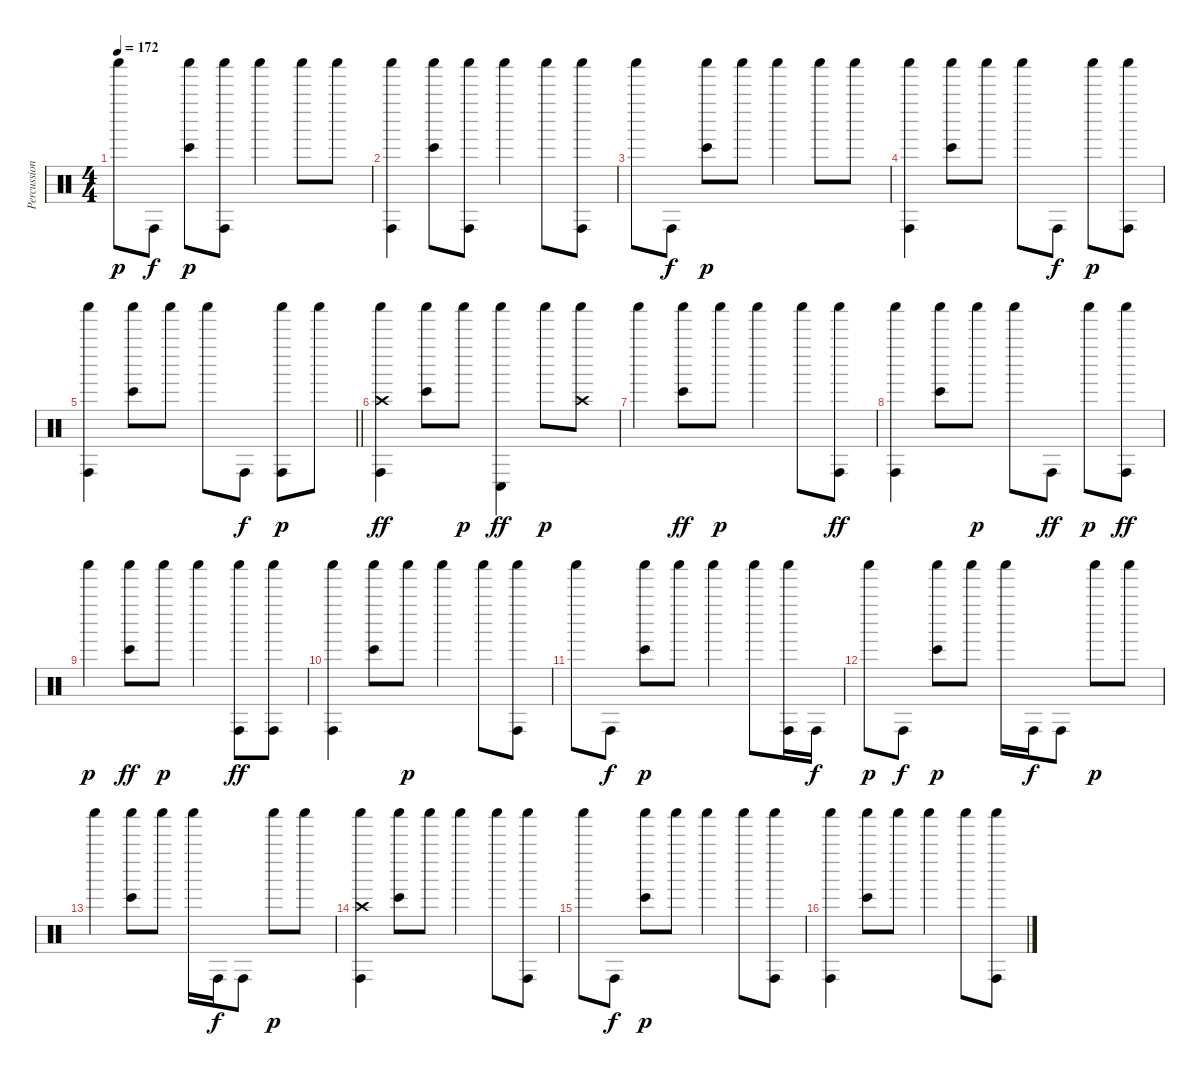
\track ("Percussion" "Percussion") {instrument percussion}
\staff {score}
\articulation defaults
\ts (4 4)
\tempo 172
\clef neutral
\ks c "Shaker (hit)".8{dy p} "Conga high (hit)".8{dy f}
("Shaker (hit)" "Bongo High (hit)").8{dy p} ("Shaker (hit)" "Conga high (hit)").8 "Shaker (hit)".4 "Shaker (hit)".8 "Shaker (hit)".8 |
("Shaker (hit)" "Conga high (hit)").4 ("Shaker (hit)" "Bongo High (hit)").8 ("Shaker (hit)" "Conga high (hit)").8 "Shaker (hit)".4 "Shaker (hit)".8 ("Shaker (hit)" "Conga high (hit)").8 |
"Shaker (hit)".8 "Conga high (hit)".8{dy f} ("Shaker (hit)" "Bongo High (hit)").8{dy p} "Shaker (hit)".8 "Shaker (hit)".4 "Shaker (hit)".8 "Shaker (hit)".8 |
("Shaker (hit)" "Conga high (hit)").4 ("Shaker (hit)" "Bongo High (hit)").8 "Shaker (hit)".8 "Shaker (hit)".8 "Conga high (hit)".8{dy f} "Shaker (hit)".8{dy p} ("Shaker (hit)" "Conga high (hit)").8 |
\barLineRight lightlight
("Shaker (hit)" "Conga high (hit)").4 ("Shaker (hit)" "Bongo High (hit)").8 "Shaker (hit)".8 "Shaker (hit)".8 "Conga high (hit)".8{dy f} ("Shaker (hit)" "Conga high (hit)").8{dy p} "Shaker (hit)".8 |
("Shaker (hit)" "Crash high (hit)" "Conga high (hit)").4{dy ff} ("Shaker (hit)" "Bongo High (hit)").8 "Shaker (hit)".8{dy p} ("Shaker (hit)" "Conga low (hit)").4{dy ff} "Shaker (hit)".8{dy p} ("Shaker (hit)" "Crash high (hit)").8 |
"Shaker (hit)".4 ("Shaker (hit)" "Bongo High (hit)").8{dy ff} "Shaker (hit)".8{dy p} "Shaker (hit)".4 "Shaker (hit)".8 ("Shaker (hit)" "Conga high (hit)").8{dy ff} |
("Shaker (hit)" "Conga high (hit)").4 ("Shaker (hit)" "Bongo High (hit)").8 "Shaker (hit)".8{dy p} "Shaker (hit)".8 "Conga high (hit)".8{dy ff} "Shaker (hit)".8{dy p} ("Shaker (hit)" "Conga high (hit)").8{dy ff} |
"Shaker (hit)".4{dy p} ("Shaker (hit)" "Bongo High (hit)").8{dy ff} "Shaker (hit)".8{dy p} "Shaker (hit)".4 ("Shaker (hit)" "Conga high (hit)").8{dy ff} ("Shaker (hit)" "Conga high (hit)").8 |
("Shaker (hit)" "Conga high (hit)").4 ("Shaker (hit)" "Bongo High (hit)").8 "Shaker (hit)".8{dy p} "Shaker (hit)".4 "Shaker (hit)".8 ("Shaker (hit)" "Conga high (hit)").8 |
"Shaker (hit)".8 "Conga high (hit)".8{dy f} ("Shaker (hit)" "Bongo High (hit)").8{dy p} "Shaker (hit)".8 "Shaker (hit)".4 "Shaker (hit)".8 ("Shaker (hit)" "Conga high (hit)").16 "Conga high (hit)".16{dy f} |
"Shaker (hit)".8{dy p} "Conga high (hit)".8{dy f} ("Shaker (hit)" "Bongo High (hit)").8{dy p} "Shaker (hit)".8 "Shaker (hit)".16 "Conga high (hit)".16{dy f} "Conga high (hit)".8 "Shaker (hit)".8{dy p} "Shaker (hit)".8 |
"Shaker (hit)".4 ("Shaker (hit)" "Bongo High (hit)").8 "Shaker (hit)".8 "Shaker (hit)".16 "Conga high (hit)".16{dy f} "Conga high (hit)".8 "Shaker (hit)".8{dy p} "Shaker (hit)".8 |
("Shaker (hit)" "Crash high (hit)" "Conga high (hit)").4 ("Shaker (hit)" "Bongo High (hit)").8 "Shaker (hit)".8 "Shaker (hit)".4 "Shaker (hit)".8 ("Shaker (hit)" "Conga high (hit)").8 |
"Shaker (hit)".8 "Conga high (hit)".8{dy f} ("Shaker (hit)" "Bongo High (hit)").8{dy p} "Shaker (hit)".8 "Shaker (hit)".4 "Shaker (hit)".8 ("Shaker (hit)" "Conga high (hit)").8 |
("Shaker (hit)" "Conga high (hit)").4 ("Shaker (hit)" "Bongo High (hit)").8 "Shaker (hit)".8 "Shaker (hit)".4 "Shaker (hit)".8 ("Shaker (hit)" "Conga high (hit)").8
